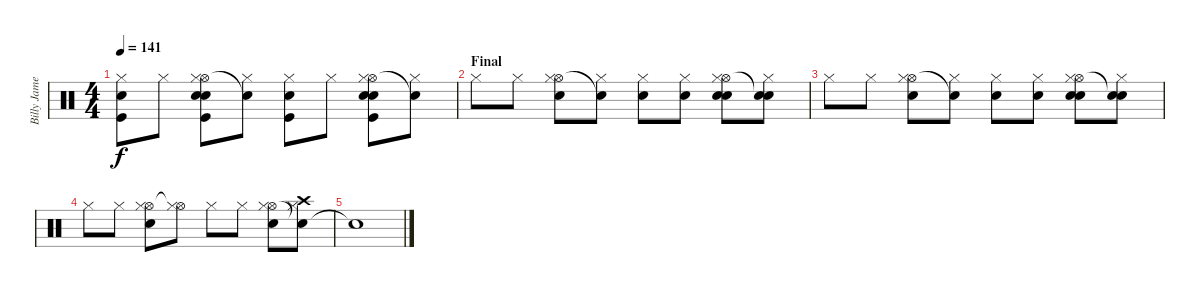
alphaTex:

\track ("Billy James (Drums)" "Billy Jame") {instrument percussion}
\staff {score}
\articulation defaults
\ts (4 4)
\tempo 141
\clef neutral
\ks c
("Kick (hit)" "Hi-Hat (closed)" "Snare (hit) 2").8{dy f} "Hi-Hat (closed)".8 ("Hi-Hat (open)" "Snare (hit) 2" "Kick (hit)" "Hi-Hat (closed)" "Snare (hit) 2").8 ("Snare (hit)"{t} "Hi-Hat (closed)").8 ("Kick (hit)" "Hi-Hat (closed)" "Snare (hit) 2").8 "Hi-Hat (closed)".8 ("Hi-Hat (open)" "Snare (hit) 2" "Kick (hit)" "Hi-Hat (closed)" "Snare (hit) 2").8 ("Snare (hit)"{t} "Hi-Hat (closed)").8 |
\section ("" "Final")
"Hi-Hat (closed)".8 "Hi-Hat (closed)".8 ("Hi-Hat (open)" "Snare (hit) 2" "Hi-Hat (closed)").8 ("Snare (hit)"{t} "Hi-Hat (closed)").8 ("Hi-Hat (closed)" "Snare (hit) 2").8 ("Hi-Hat (closed)" "Snare (hit) 2").8 ("Hi-Hat (open)" "Snare (hit) 2" "Hi-Hat (closed)" "Snare (hit) 2").8 ("Snare (hit)"{t} "Hi-Hat (closed)" "Snare (hit) 2").8 |
"Hi-Hat (closed)".8 "Hi-Hat (closed)".8 ("Hi-Hat (open)" "Snare (hit) 2" "Hi-Hat (closed)").8 ("Snare (hit)"{t} "Hi-Hat (closed)").8 ("Hi-Hat (closed)" "Snare (hit) 2").8 ("Hi-Hat (closed)" "Snare (hit) 2").8 ("Hi-Hat (open)" "Snare (hit) 2" "Hi-Hat (closed)" "Snare (hit) 2").8 ("Snare (hit)"{t} "Hi-Hat (closed)" "Snare (hit) 2").8 |
"Hi-Hat (closed)".8 "Hi-Hat (closed)".8 ("Hi-Hat (open)" "Snare (hit) 2" "Hi-Hat (closed)").8 ("Hi-Hat (open)"{t} "Hi-Hat (closed)").8 "Hi-Hat (closed)".8 "Hi-Hat (closed)".8 ("Hi-Hat (open)" "Snare (hit) 2" "Hi-Hat (closed)").8 ("Snare (hit)"{t} "Hi-Hat (closed)" "Crash high (hit)").8 |
"Snare (hit)"{t}.1
